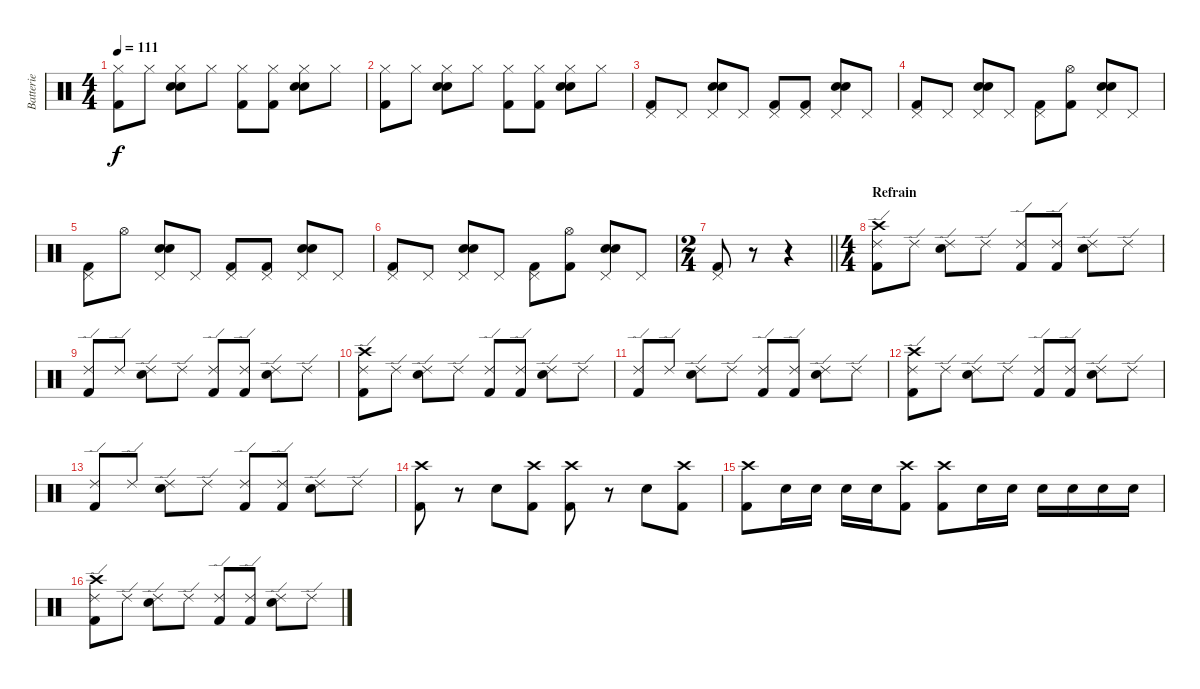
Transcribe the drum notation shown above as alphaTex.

\track ("Batterie" "Batterie") {instrument percussion}
\staff {score}
\articulation defaults
\ts (4 4)
\tempo 111
\clef neutral
\ks c
("Kick (hit) 2" "Hi-Hat (closed)").8{dy f} "Hi-Hat (closed)".8 ("Electric Snare (hit)" "Hi-Hat (closed)" "Hand Clap (hit)").8 "Hi-Hat (closed)".8 ("Kick (hit) 2" "Hi-Hat (closed)").8 ("Kick (hit) 2" "Hi-Hat (closed)").8 ("Electric Snare (hit)" "Hi-Hat (closed)" "Hand Clap (hit)").8 "Hi-Hat (closed)".8 |
("Kick (hit) 2" "Hi-Hat (closed)").8 "Hi-Hat (closed)".8 ("Electric Snare (hit)" "Hi-Hat (closed)" "Hand Clap (hit)").8 "Hi-Hat (closed)".8 ("Kick (hit) 2" "Hi-Hat (closed)").8 ("Kick (hit) 2" "Hi-Hat (closed)").8 ("Electric Snare (hit)" "Hi-Hat (closed)" "Hand Clap (hit)").8 "Hi-Hat (closed)".8 |
("Kick (hit) 2" "Pedal Hi-Hat (hit)").8 "Pedal Hi-Hat (hit)".8 ("Snare (hit) 2" "Pedal Hi-Hat (hit)" "Hand Clap (hit)").8 "Pedal Hi-Hat (hit)".8 ("Kick (hit) 2" "Pedal Hi-Hat (hit)").8 ("Kick (hit) 2" "Pedal Hi-Hat (hit)").8 ("Snare (hit) 2" "Pedal Hi-Hat (hit)" "Hand Clap (hit)").8 "Pedal Hi-Hat (hit)".8 |
("Kick (hit) 2" "Pedal Hi-Hat (hit)").8 "Pedal Hi-Hat (hit)".8 ("Snare (hit) 2" "Pedal Hi-Hat (hit)" "Hand Clap (hit)").8 "Pedal Hi-Hat (hit)".8 ("Kick (hit) 2" "Pedal Hi-Hat (hit)").8 ("Kick (hit) 2" "Hi-Hat (open)").8 ("Snare (hit) 2" "Pedal Hi-Hat (hit)" "Hand Clap (hit)").8 "Pedal Hi-Hat (hit)".8 |
("Kick (hit) 2" "Pedal Hi-Hat (hit)").8 "Hi-Hat (open)".8 ("Snare (hit) 2" "Pedal Hi-Hat (hit)" "Hand Clap (hit)").8 "Pedal Hi-Hat (hit)".8 ("Kick (hit) 2" "Pedal Hi-Hat (hit)").8 ("Kick (hit) 2" "Pedal Hi-Hat (hit)").8 ("Snare (hit) 2" "Pedal Hi-Hat (hit)" "Hand Clap (hit)").8 "Pedal Hi-Hat (hit)".8 |
("Kick (hit) 2" "Pedal Hi-Hat (hit)").8 "Pedal Hi-Hat (hit)".8 ("Snare (hit) 2" "Pedal Hi-Hat (hit)" "Hand Clap (hit)").8 "Pedal Hi-Hat (hit)".8 ("Kick (hit) 2" "Pedal Hi-Hat (hit)").8 ("Kick (hit) 2" "Hi-Hat (open)").8 ("Snare (hit) 2" "Pedal Hi-Hat (hit)" "Hand Clap (hit)").8 "Pedal Hi-Hat (hit)".8 |
\ts (2 4)
\barLineRight lightlight
("Kick (hit) 2" "Pedal Hi-Hat (hit)").8 r.8 r.4 |
\ts (4 4)
\section ("" "Refrain")
("Kick (hit) 2" "Ride (edge) 2" "Crash high (hit)").8 "Ride (edge) 2".8 ("Snare (hit) 2" "Ride (edge) 2").8 "Ride (edge) 2".8 ("Kick (hit) 2" "Ride (edge) 2").8 ("Kick (hit) 2" "Ride (edge) 2").8 ("Snare (hit) 2" "Ride (edge) 2").8 "Ride (edge) 2".8 |
("Kick (hit) 2" "Ride (edge) 2").8 "Ride (edge) 2".8 ("Snare (hit) 2" "Ride (edge) 2").8 "Ride (edge) 2".8 ("Kick (hit) 2" "Ride (edge) 2").8 ("Kick (hit) 2" "Ride (edge) 2").8 ("Snare (hit) 2" "Ride (edge) 2").8 "Ride (edge) 2".8 |
("Kick (hit) 2" "Ride (edge) 2" "Crash high (hit)").8 "Ride (edge) 2".8 ("Snare (hit) 2" "Ride (edge) 2").8 "Ride (edge) 2".8 ("Kick (hit) 2" "Ride (edge) 2").8 ("Kick (hit) 2" "Ride (edge) 2").8 ("Snare (hit) 2" "Ride (edge) 2").8 "Ride (edge) 2".8 |
("Kick (hit) 2" "Ride (edge) 2").8 "Ride (edge) 2".8 ("Snare (hit) 2" "Ride (edge) 2").8 "Ride (edge) 2".8 ("Kick (hit) 2" "Ride (edge) 2").8 ("Kick (hit) 2" "Ride (edge) 2").8 ("Snare (hit) 2" "Ride (edge) 2").8 "Ride (edge) 2".8 |
("Kick (hit) 2" "Ride (edge) 2" "Crash high (hit)").8 "Ride (edge) 2".8 ("Snare (hit) 2" "Ride (edge) 2").8 "Ride (edge) 2".8 ("Kick (hit) 2" "Ride (edge) 2").8 ("Kick (hit) 2" "Ride (edge) 2").8 ("Snare (hit) 2" "Ride (edge) 2").8 "Ride (edge) 2".8 |
("Kick (hit) 2" "Ride (edge) 2").8 "Ride (edge) 2".8 ("Snare (hit) 2" "Ride (edge) 2").8 "Ride (edge) 2".8 ("Kick (hit) 2" "Ride (edge) 2").8 ("Kick (hit) 2" "Ride (edge) 2").8 ("Snare (hit) 2" "Ride (edge) 2").8 "Ride (edge) 2".8 |
("Kick (hit) 2" "Crash high (hit)").8 r.8 "Snare (hit) 2".8 ("Kick (hit) 2" "Crash high (hit)").8 ("Kick (hit) 2" "Crash high (hit)").8 r.8 "Snare (hit) 2".8 ("Kick (hit) 2" "Crash high (hit)").8 |
("Kick (hit) 2" "Crash high (hit)").8 "Snare (hit) 2".16 "Snare (hit) 2".16 "Snare (hit) 2".16 "Snare (hit) 2".16 ("Kick (hit) 2" "Crash high (hit)").8 ("Kick (hit) 2" "Crash high (hit)").8 "Snare (hit) 2".16 "Snare (hit) 2".16 "Snare (hit) 2".16 "Snare (hit) 2".16 "Snare (hit) 2".16 "Snare (hit) 2".16 |
("Kick (hit) 2" "Ride (edge) 2" "Crash high (hit)").8 "Ride (edge) 2".8 ("Snare (hit) 2" "Ride (edge) 2").8 "Ride (edge) 2".8 ("Kick (hit) 2" "Ride (edge) 2").8 ("Kick (hit) 2" "Ride (edge) 2").8 ("Snare (hit) 2" "Ride (edge) 2").8 "Ride (edge) 2".8
